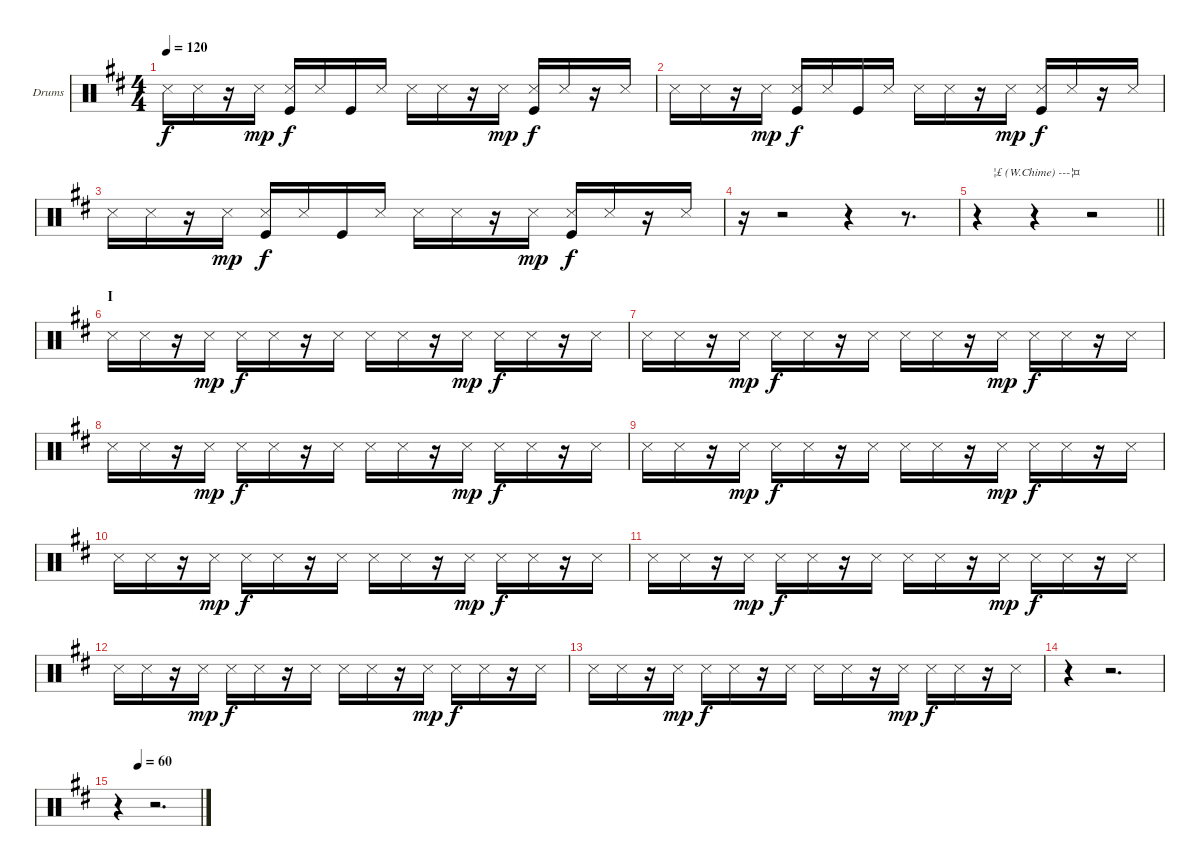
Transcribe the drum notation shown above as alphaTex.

\bracketExtendMode groupsimilarinstruments
\firstSystemTrackNameOrientation horizontal
\otherSystemsTrackNameOrientation horizontal
\track ("Drumkit" "Drums") {instrument percussion}
\staff {score}
\articulation defaults
\ts (4 4)
\tempo 120
\clef neutral
\ks d "Snare (side stick) 3".16{dy f} "Snare (side stick) 3".16
r.16 "Snare (side stick) 3".16{dy mp} ("Snare (side stick) 3" "Kick (hit)").16{dy f} "Snare (side stick) 3".16 "Kick (hit)".16 "Snare (side stick) 3".16 "Snare (side stick) 3".16 "Snare (side stick) 3".16 r.16 "Snare (side stick) 3".16{dy mp} ("Snare (side stick) 3" "Kick (hit)").16{dy f} "Snare (side stick) 3".16 r.16 "Snare (side stick) 3".16 |
"Snare (side stick) 3".16 "Snare (side stick) 3".16 r.16 "Snare (side stick) 3".16{dy mp} ("Snare (side stick) 3" "Kick (hit)").16{dy f} "Snare (side stick) 3".16 "Kick (hit)".16 "Snare (side stick) 3".16 "Snare (side stick) 3".16 "Snare (side stick) 3".16 r.16 "Snare (side stick) 3".16{dy mp} ("Snare (side stick) 3" "Kick (hit)").16{dy f} "Snare (side stick) 3".16 r.16 "Snare (side stick) 3".16 |
"Snare (side stick) 3".16 "Snare (side stick) 3".16 r.16 "Snare (side stick) 3".16{dy mp} ("Snare (side stick) 3" "Kick (hit)").16{dy f} "Snare (side stick) 3".16 "Kick (hit)".16 "Snare (side stick) 3".16 "Snare (side stick) 3".16 "Snare (side stick) 3".16 r.16 "Snare (side stick) 3".16{dy mp} ("Snare (side stick) 3" "Kick (hit)").16{dy f} "Snare (side stick) 3".16 r.16 "Snare (side stick) 3".16 |
r.16 r.2 r.4 r.8{d} |
\barLineRight lightlight
r.4{txt "     ¦£ (W.Chime) ---¦¤"} r.4 r.2 |
\section ("" "I")
"Snare (side stick) 3".16 "Snare (side stick) 3".16 r.16 "Snare (side stick) 3".16{dy mp} "Snare (side stick) 3".16{dy f} "Snare (side stick) 3".16 r.16 "Snare (side stick) 3".16 "Snare (side stick) 3".16 "Snare (side stick) 3".16 r.16 "Snare (side stick) 3".16{dy mp} "Snare (side stick) 3".16{dy f} "Snare (side stick) 3".16 r.16 "Snare (side stick) 3".16 |
"Snare (side stick) 3".16 "Snare (side stick) 3".16 r.16 "Snare (side stick) 3".16{dy mp} "Snare (side stick) 3".16{dy f} "Snare (side stick) 3".16 r.16 "Snare (side stick) 3".16 "Snare (side stick) 3".16 "Snare (side stick) 3".16 r.16 "Snare (side stick) 3".16{dy mp} "Snare (side stick) 3".16{dy f} "Snare (side stick) 3".16 r.16 "Snare (side stick) 3".16 |
"Snare (side stick) 3".16 "Snare (side stick) 3".16 r.16 "Snare (side stick) 3".16{dy mp} "Snare (side stick) 3".16{dy f} "Snare (side stick) 3".16 r.16 "Snare (side stick) 3".16 "Snare (side stick) 3".16 "Snare (side stick) 3".16 r.16 "Snare (side stick) 3".16{dy mp} "Snare (side stick) 3".16{dy f} "Snare (side stick) 3".16 r.16 "Snare (side stick) 3".16 |
"Snare (side stick) 3".16 "Snare (side stick) 3".16 r.16 "Snare (side stick) 3".16{dy mp} "Snare (side stick) 3".16{dy f} "Snare (side stick) 3".16 r.16 "Snare (side stick) 3".16 "Snare (side stick) 3".16 "Snare (side stick) 3".16 r.16 "Snare (side stick) 3".16{dy mp} "Snare (side stick) 3".16{dy f} "Snare (side stick) 3".16 r.16 "Snare (side stick) 3".16 |
"Snare (side stick) 3".16 "Snare (side stick) 3".16 r.16 "Snare (side stick) 3".16{dy mp} "Snare (side stick) 3".16{dy f} "Snare (side stick) 3".16 r.16 "Snare (side stick) 3".16 "Snare (side stick) 3".16 "Snare (side stick) 3".16 r.16 "Snare (side stick) 3".16{dy mp} "Snare (side stick) 3".16{dy f} "Snare (side stick) 3".16 r.16 "Snare (side stick) 3".16 |
"Snare (side stick) 3".16 "Snare (side stick) 3".16 r.16 "Snare (side stick) 3".16{dy mp} "Snare (side stick) 3".16{dy f} "Snare (side stick) 3".16 r.16 "Snare (side stick) 3".16 "Snare (side stick) 3".16 "Snare (side stick) 3".16 r.16 "Snare (side stick) 3".16{dy mp} "Snare (side stick) 3".16{dy f} "Snare (side stick) 3".16 r.16 "Snare (side stick) 3".16 |
"Snare (side stick) 3".16 "Snare (side stick) 3".16 r.16 "Snare (side stick) 3".16{dy mp} "Snare (side stick) 3".16{dy f} "Snare (side stick) 3".16 r.16 "Snare (side stick) 3".16 "Snare (side stick) 3".16 "Snare (side stick) 3".16 r.16 "Snare (side stick) 3".16{dy mp} "Snare (side stick) 3".16{dy f} "Snare (side stick) 3".16 r.16 "Snare (side stick) 3".16 |
"Snare (side stick) 3".16 "Snare (side stick) 3".16 r.16 "Snare (side stick) 3".16{dy mp} "Snare (side stick) 3".16{dy f} "Snare (side stick) 3".16 r.16 "Snare (side stick) 3".16 "Snare (side stick) 3".16 "Snare (side stick) 3".16 r.16 "Snare (side stick) 3".16{dy mp} "Snare (side stick) 3".16{dy f} "Snare (side stick) 3".16 r.16 "Snare (side stick) 3".16 |
r.4 r.2{d} |
\tempo (60 0.25)
r.4 r.2{d}
